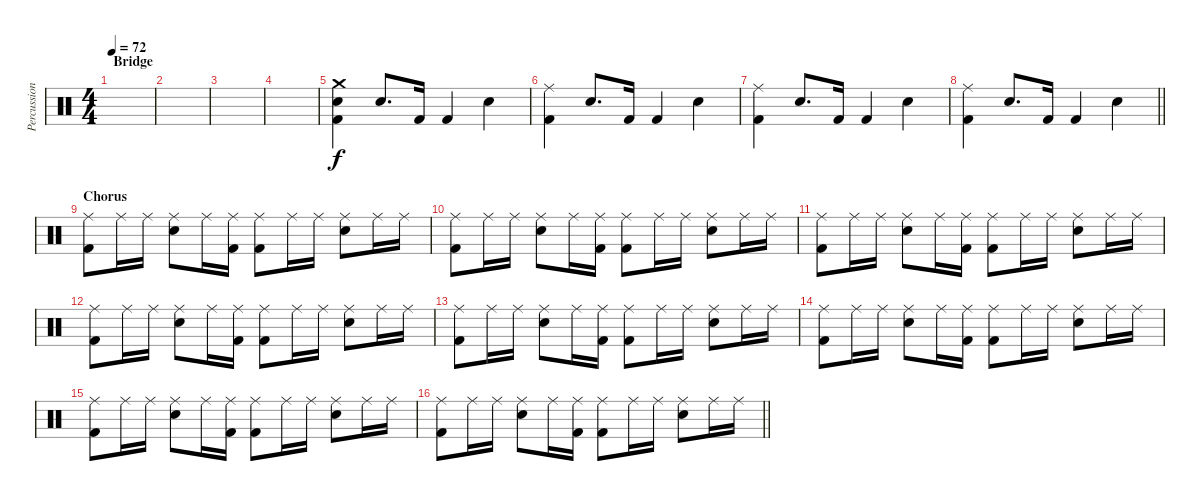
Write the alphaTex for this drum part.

\track ("Percussion" "Percussion") {instrument percussion}
\staff {score}
\articulation defaults
\ts (4 4)
\section ("" "Bridge")
\tempo 72
\clef neutral
\ks c
|
|
|
|
("Crash medium (hit)" "Electric Snare (hit)" "Kick (hit) 2").4 "Electric Snare (hit)".8{d} "Kick (hit) 2".16 "Kick (hit) 2".4 "Electric Snare (hit)".4 |
("Ride (middle)" "Kick (hit) 2").4 "Electric Snare (hit)".8{d} "Kick (hit) 2".16 "Kick (hit) 2".4 "Electric Snare (hit)".4 |
("Ride (middle)" "Kick (hit) 2").4 "Electric Snare (hit)".8{d} "Kick (hit) 2".16 "Kick (hit) 2".4 "Electric Snare (hit)".4 |
\barLineRight lightlight
("Ride (middle)" "Kick (hit) 2").4 "Electric Snare (hit)".8{d} "Kick (hit) 2".16 "Kick (hit) 2".4 "Electric Snare (hit)".4 |
\section ("" "Chorus")
("Ride (middle)" "Kick (hit) 2").8 "Ride (middle)".16 "Ride (middle)".16 ("Ride (middle)" "Electric Snare (hit)").8 "Ride (middle)".16 ("Ride (middle)" "Kick (hit) 2").16 ("Ride (middle)" "Kick (hit) 2").8 "Ride (middle)".16 "Ride (middle)".16 ("Ride (middle)" "Electric Snare (hit)").8 "Ride (middle)".16 "Ride (middle)".16 |
("Ride (middle)" "Kick (hit) 2").8 "Ride (middle)".16 "Ride (middle)".16 ("Ride (middle)" "Electric Snare (hit)").8 "Ride (middle)".16 ("Ride (middle)" "Kick (hit) 2").16 ("Ride (middle)" "Kick (hit) 2").8 "Ride (middle)".16 "Ride (middle)".16 ("Ride (middle)" "Electric Snare (hit)").8 "Ride (middle)".16 "Ride (middle)".16 |
("Ride (middle)" "Kick (hit) 2").8 "Ride (middle)".16 "Ride (middle)".16 ("Ride (middle)" "Electric Snare (hit)").8 "Ride (middle)".16 ("Ride (middle)" "Kick (hit) 2").16 ("Ride (middle)" "Kick (hit) 2").8 "Ride (middle)".16 "Ride (middle)".16 ("Ride (middle)" "Electric Snare (hit)").8 "Ride (middle)".16 "Ride (middle)".16 |
("Ride (middle)" "Kick (hit) 2").8 "Ride (middle)".16 "Ride (middle)".16 ("Ride (middle)" "Electric Snare (hit)").8 "Ride (middle)".16 ("Ride (middle)" "Kick (hit) 2").16 ("Ride (middle)" "Kick (hit) 2").8 "Ride (middle)".16 "Ride (middle)".16 ("Ride (middle)" "Electric Snare (hit)").8 "Ride (middle)".16 "Ride (middle)".16 |
("Ride (middle)" "Kick (hit) 2").8 "Ride (middle)".16 "Ride (middle)".16 ("Ride (middle)" "Electric Snare (hit)").8 "Ride (middle)".16 ("Ride (middle)" "Kick (hit) 2").16 ("Ride (middle)" "Kick (hit) 2").8 "Ride (middle)".16 "Ride (middle)".16 ("Ride (middle)" "Electric Snare (hit)").8 "Ride (middle)".16 "Ride (middle)".16 |
("Ride (middle)" "Kick (hit) 2").8 "Ride (middle)".16 "Ride (middle)".16 ("Ride (middle)" "Electric Snare (hit)").8 "Ride (middle)".16 ("Ride (middle)" "Kick (hit) 2").16 ("Ride (middle)" "Kick (hit) 2").8 "Ride (middle)".16 "Ride (middle)".16 ("Ride (middle)" "Electric Snare (hit)").8 "Ride (middle)".16 "Ride (middle)".16 |
("Ride (middle)" "Kick (hit) 2").8 "Ride (middle)".16 "Ride (middle)".16 ("Ride (middle)" "Electric Snare (hit)").8 "Ride (middle)".16 ("Ride (middle)" "Kick (hit) 2").16 ("Ride (middle)" "Kick (hit) 2").8 "Ride (middle)".16 "Ride (middle)".16 ("Ride (middle)" "Electric Snare (hit)").8 "Ride (middle)".16 "Ride (middle)".16 |
\barLineRight lightlight
("Ride (middle)" "Kick (hit) 2").8 "Ride (middle)".16 "Ride (middle)".16 ("Ride (middle)" "Electric Snare (hit)").8 "Ride (middle)".16 ("Ride (middle)" "Kick (hit) 2").16 ("Ride (middle)" "Kick (hit) 2").8 "Ride (middle)".16 "Ride (middle)".16 ("Ride (middle)" "Electric Snare (hit)").8 "Ride (middle)".16 "Ride (middle)".16
